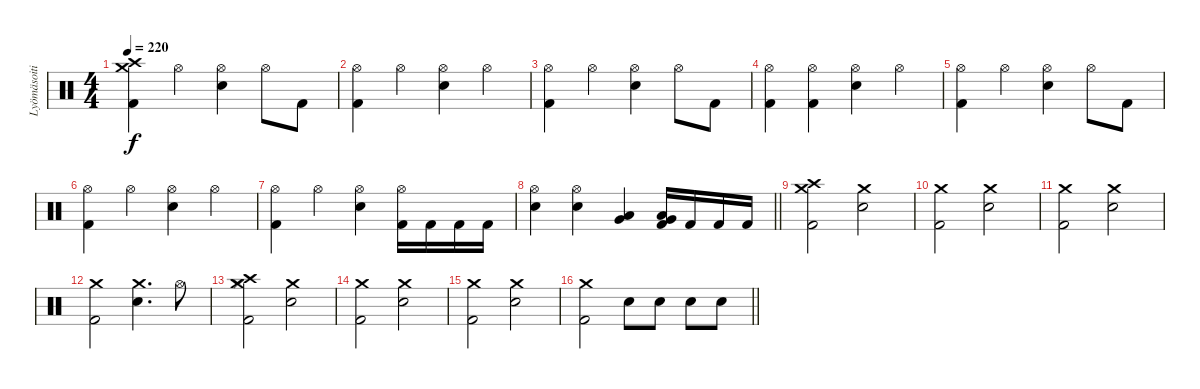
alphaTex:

\track ("Lyömäsoitin" "Lyömäsoiti") {instrument percussion}
\staff {score}
\articulation defaults
\ts (4 4)
\tempo 220
\clef neutral
\ks c
("Crash medium (hit)" "Crash high (hit)" "Kick (hit) 2").4{dy f} "Hi-Hat (open)".4 ("Hi-Hat (open)" "Electric Snare (hit)").4 "Hi-Hat (open)".8 "Kick (hit) 2".8 |
("Hi-Hat (open)" "Kick (hit) 2").4 "Hi-Hat (open)".4 ("Hi-Hat (open)" "Electric Snare (hit)").4 "Hi-Hat (open)".4 |
("Hi-Hat (open)" "Kick (hit) 2").4 "Hi-Hat (open)".4 ("Hi-Hat (open)" "Electric Snare (hit)").4 "Hi-Hat (open)".8 "Kick (hit) 2".8 |
("Hi-Hat (open)" "Kick (hit) 2").4 ("Hi-Hat (open)" "Kick (hit) 2").4 ("Hi-Hat (open)" "Electric Snare (hit)").4 "Hi-Hat (open)".4 |
("Hi-Hat (open)" "Kick (hit) 2").4 "Hi-Hat (open)".4 ("Hi-Hat (open)" "Electric Snare (hit)").4 "Hi-Hat (open)".8 "Kick (hit) 2".8 |
("Hi-Hat (open)" "Kick (hit) 2").4 "Hi-Hat (open)".4 ("Hi-Hat (open)" "Electric Snare (hit)").4 "Hi-Hat (open)".4 |
("Hi-Hat (open)" "Kick (hit) 2").4 "Hi-Hat (open)".4 ("Hi-Hat (open)" "Electric Snare (hit)").4 ("Hi-Hat (open)" "Kick (hit) 2").16 "Kick (hit) 2".16 "Kick (hit) 2".16 "Kick (hit) 2".16 |
\barLineRight lightlight
("Hi-Hat (open)" "Electric Snare (hit)").4 ("Hi-Hat (open)" "Electric Snare (hit)").4 ("Low Tom (hit)" "Very Low Tom (hit)").4 ("Low Tom (hit)" "Very Low Tom (hit)" "Kick (hit) 2").16 "Kick (hit) 2".16 "Kick (hit) 2".16 "Kick (hit) 2".16 |
\section ("" "")
("Crash medium (hit)" "Crash high (hit)" "Kick (hit) 2").2 ("Crash medium (hit)" "Electric Snare (hit)").2 |
("Crash medium (hit)" "Kick (hit) 2").2 ("Crash medium (hit)" "Electric Snare (hit)").2 |
("Crash medium (hit)" "Kick (hit) 2").2 ("Crash medium (hit)" "Electric Snare (hit)").2 |
("Crash medium (hit)" "Kick (hit) 2").2 ("Crash medium (hit)" "Electric Snare (hit)").4{d} "Hi-Hat (open)".8 |
("Crash medium (hit)" "Crash high (hit)" "Hi-Hat (closed)" "Kick (hit) 2").2 ("Crash medium (hit)" "Electric Snare (hit)").2 |
("Crash medium (hit)" "Kick (hit) 2").2 ("Crash medium (hit)" "Electric Snare (hit)").2 |
("Crash medium (hit)" "Kick (hit) 2").2 ("Crash medium (hit)" "Electric Snare (hit)").2 |
\barLineRight lightlight
("Crash medium (hit)" "Kick (hit) 2").2 "Electric Snare (hit)".8 "Electric Snare (hit)".8 "Electric Snare (hit)".8 "Electric Snare (hit)".8
